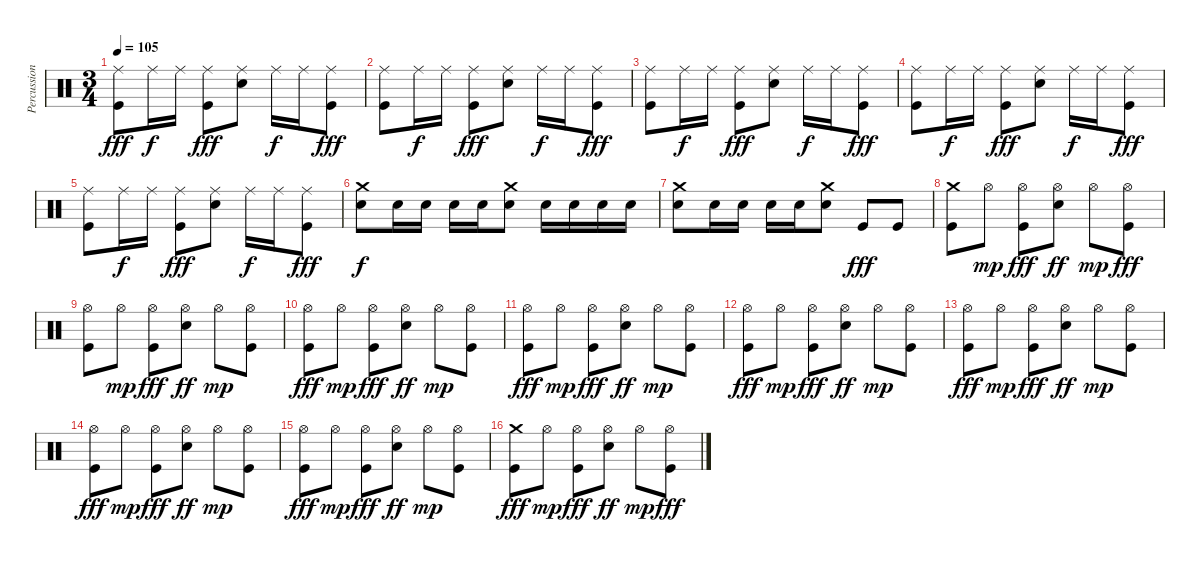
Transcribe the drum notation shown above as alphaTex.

\track ("Percussions" "Percussion") {instrument percussion}
\staff {score}
\articulation defaults
\ts (3 4)
\tempo 105
\clef neutral
\ks c
("Ride (middle)" "Kick (hit)").8{dy fff} "Ride (middle)".16{dy f} "Ride (middle)".16 ("Ride (middle)" "Kick (hit)").8{dy fff} ("Ride (middle)" "Snare (hit) 2").8 "Ride (middle)".16{dy f} "Ride (middle)".16 ("Ride (middle)" "Kick (hit)").8{dy fff} |
("Ride (middle)" "Kick (hit)").8 "Ride (middle)".16{dy f} "Ride (middle)".16 ("Ride (middle)" "Kick (hit)").8{dy fff} ("Ride (middle)" "Snare (hit) 2").8 "Ride (middle)".16{dy f} "Ride (middle)".16 ("Ride (middle)" "Kick (hit)").8{dy fff} |
("Ride (middle)" "Kick (hit)").8 "Ride (middle)".16{dy f} "Ride (middle)".16 ("Ride (middle)" "Kick (hit)").8{dy fff} ("Ride (middle)" "Snare (hit) 2").8 "Ride (middle)".16{dy f} "Ride (middle)".16 ("Ride (middle)" "Kick (hit)").8{dy fff} |
("Ride (middle)" "Kick (hit)").8 "Ride (middle)".16{dy f} "Ride (middle)".16 ("Ride (middle)" "Kick (hit)").8{dy fff} ("Ride (middle)" "Snare (hit) 2").8 "Ride (middle)".16{dy f} "Ride (middle)".16 ("Ride (middle)" "Kick (hit)").8{dy fff} |
("Ride (middle)" "Kick (hit)").8 "Ride (middle)".16{dy f} "Ride (middle)".16 ("Ride (middle)" "Kick (hit)").8{dy fff} ("Ride (middle)" "Snare (hit) 2").8 "Ride (middle)".16{dy f} "Ride (middle)".16 ("Ride (middle)" "Kick (hit)").8{dy fff} |
("Crash medium (hit)" "Snare (hit) 2").8{dy f} "Snare (hit) 2".16 "Snare (hit) 2".16 "Snare (hit) 2".16 "Snare (hit) 2".16 ("Crash medium (hit)" "Snare (hit) 2").8 "Snare (hit) 2".16 "Snare (hit) 2".16 "Snare (hit) 2".16 "Snare (hit) 2".16 |
("Crash medium (hit)" "Snare (hit) 2").8 "Snare (hit) 2".16 "Snare (hit) 2".16 "Snare (hit) 2".16 "Snare (hit) 2".16 ("Crash medium (hit)" "Snare (hit) 2").8 "Kick (hit)".8{dy fff} "Kick (hit)".8 |
("Crash medium (hit)" "Kick (hit)").8 "Hi-Hat (open)".8{dy mp} ("Hi-Hat (open)" "Kick (hit)").8{dy fff} ("Hi-Hat (open)" "Snare (hit) 2").8{dy ff} "Hi-Hat (open)".8{dy mp} ("Hi-Hat (open)" "Kick (hit)").8{dy fff} |
("Hi-Hat (open)" "Kick (hit)").8 "Hi-Hat (open)".8{dy mp} ("Hi-Hat (open)" "Kick (hit)").8{dy fff} ("Hi-Hat (open)" "Snare (hit) 2").8{dy ff} "Hi-Hat (open)".8{dy mp} ("Hi-Hat (open)" "Kick (hit)").8 |
("Hi-Hat (open)" "Kick (hit)").8{dy fff} "Hi-Hat (open)".8{dy mp} ("Hi-Hat (open)" "Kick (hit)").8{dy fff} ("Hi-Hat (open)" "Snare (hit) 2").8{dy ff} "Hi-Hat (open)".8{dy mp} ("Hi-Hat (open)" "Kick (hit)").8 |
("Hi-Hat (open)" "Kick (hit)").8{dy fff} "Hi-Hat (open)".8{dy mp} ("Hi-Hat (open)" "Kick (hit)").8{dy fff} ("Hi-Hat (open)" "Snare (hit) 2").8{dy ff} "Hi-Hat (open)".8{dy mp} ("Hi-Hat (open)" "Kick (hit)").8 |
("Hi-Hat (open)" "Kick (hit)").8{dy fff} "Hi-Hat (open)".8{dy mp} ("Hi-Hat (open)" "Kick (hit)").8{dy fff} ("Hi-Hat (open)" "Snare (hit) 2").8{dy ff} "Hi-Hat (open)".8{dy mp} ("Hi-Hat (open)" "Kick (hit)").8 |
("Hi-Hat (open)" "Kick (hit)").8{dy fff} "Hi-Hat (open)".8{dy mp} ("Hi-Hat (open)" "Kick (hit)").8{dy fff} ("Hi-Hat (open)" "Snare (hit) 2").8{dy ff} "Hi-Hat (open)".8{dy mp} ("Hi-Hat (open)" "Kick (hit)").8 |
("Hi-Hat (open)" "Kick (hit)").8{dy fff} "Hi-Hat (open)".8{dy mp} ("Hi-Hat (open)" "Kick (hit)").8{dy fff} ("Hi-Hat (open)" "Snare (hit) 2").8{dy ff} "Hi-Hat (open)".8{dy mp} ("Hi-Hat (open)" "Kick (hit)").8 |
("Hi-Hat (open)" "Kick (hit)").8{dy fff} "Hi-Hat (open)".8{dy mp} ("Hi-Hat (open)" "Kick (hit)").8{dy fff} ("Hi-Hat (open)" "Snare (hit) 2").8{dy ff} "Hi-Hat (open)".8{dy mp} ("Hi-Hat (open)" "Kick (hit)").8 |
("Crash medium (hit)" "Kick (hit)").8{dy fff} "Hi-Hat (open)".8{dy mp} ("Hi-Hat (open)" "Kick (hit)").8{dy fff} ("Hi-Hat (open)" "Snare (hit) 2").8{dy ff} "Hi-Hat (open)".8{dy mp} ("Hi-Hat (open)" "Kick (hit)").8{dy fff}
